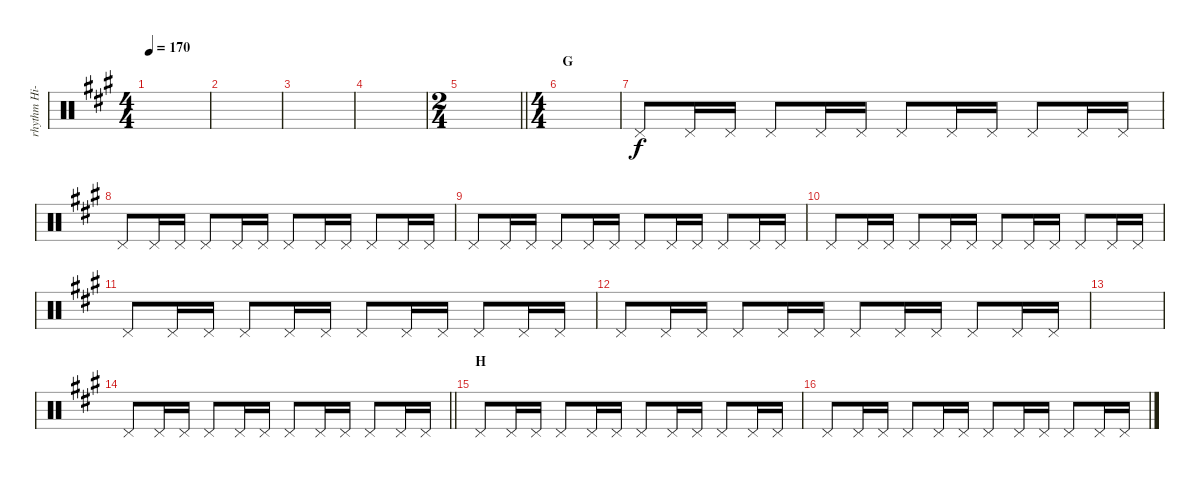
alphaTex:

\track ("rhythm Hi-hat" "rhythm Hi-") {instrument percussion}
\staff {score}
\articulation defaults
\ts (4 4)
\tempo 170
\clef neutral
\ks a
|
|
|
|
\ts (2 4)
\barLineRight lightlight
|
\ts (4 4)
\section ("" "G")
|
"Pedal Hi-Hat (hit)".8 "Pedal Hi-Hat (hit)".16 "Pedal Hi-Hat (hit)".16 "Pedal Hi-Hat (hit)".8 "Pedal Hi-Hat (hit)".16 "Pedal Hi-Hat (hit)".16 "Pedal Hi-Hat (hit)".8 "Pedal Hi-Hat (hit)".16 "Pedal Hi-Hat (hit)".16 "Pedal Hi-Hat (hit)".8 "Pedal Hi-Hat (hit)".16 "Pedal Hi-Hat (hit)".16 |
"Pedal Hi-Hat (hit)".8 "Pedal Hi-Hat (hit)".16 "Pedal Hi-Hat (hit)".16 "Pedal Hi-Hat (hit)".8 "Pedal Hi-Hat (hit)".16 "Pedal Hi-Hat (hit)".16 "Pedal Hi-Hat (hit)".8 "Pedal Hi-Hat (hit)".16 "Pedal Hi-Hat (hit)".16 "Pedal Hi-Hat (hit)".8 "Pedal Hi-Hat (hit)".16 "Pedal Hi-Hat (hit)".16 |
"Pedal Hi-Hat (hit)".8 "Pedal Hi-Hat (hit)".16 "Pedal Hi-Hat (hit)".16 "Pedal Hi-Hat (hit)".8 "Pedal Hi-Hat (hit)".16 "Pedal Hi-Hat (hit)".16 "Pedal Hi-Hat (hit)".8 "Pedal Hi-Hat (hit)".16 "Pedal Hi-Hat (hit)".16 "Pedal Hi-Hat (hit)".8 "Pedal Hi-Hat (hit)".16 "Pedal Hi-Hat (hit)".16 |
"Pedal Hi-Hat (hit)".8 "Pedal Hi-Hat (hit)".16 "Pedal Hi-Hat (hit)".16 "Pedal Hi-Hat (hit)".8 "Pedal Hi-Hat (hit)".16 "Pedal Hi-Hat (hit)".16 "Pedal Hi-Hat (hit)".8 "Pedal Hi-Hat (hit)".16 "Pedal Hi-Hat (hit)".16 "Pedal Hi-Hat (hit)".8 "Pedal Hi-Hat (hit)".16 "Pedal Hi-Hat (hit)".16 |
"Pedal Hi-Hat (hit)".8 "Pedal Hi-Hat (hit)".16 "Pedal Hi-Hat (hit)".16 "Pedal Hi-Hat (hit)".8 "Pedal Hi-Hat (hit)".16 "Pedal Hi-Hat (hit)".16 "Pedal Hi-Hat (hit)".8 "Pedal Hi-Hat (hit)".16 "Pedal Hi-Hat (hit)".16 "Pedal Hi-Hat (hit)".8 "Pedal Hi-Hat (hit)".16 "Pedal Hi-Hat (hit)".16 |
"Pedal Hi-Hat (hit)".8 "Pedal Hi-Hat (hit)".16 "Pedal Hi-Hat (hit)".16 "Pedal Hi-Hat (hit)".8 "Pedal Hi-Hat (hit)".16 "Pedal Hi-Hat (hit)".16 "Pedal Hi-Hat (hit)".8 "Pedal Hi-Hat (hit)".16 "Pedal Hi-Hat (hit)".16 "Pedal Hi-Hat (hit)".8 "Pedal Hi-Hat (hit)".16 "Pedal Hi-Hat (hit)".16 |
|
\barLineRight lightlight "Pedal Hi-Hat (hit)".8 "Pedal Hi-Hat (hit)".16 "Pedal Hi-Hat (hit)".16 "Pedal Hi-Hat (hit)".8 "Pedal Hi-Hat (hit)".16 "Pedal Hi-Hat (hit)".16 "Pedal Hi-Hat (hit)".8 "Pedal Hi-Hat (hit)".16 "Pedal Hi-Hat (hit)".16 "Pedal Hi-Hat (hit)".8 "Pedal Hi-Hat (hit)".16 "Pedal Hi-Hat (hit)".16
|
\section ("" "H")
"Pedal Hi-Hat (hit)".8 "Pedal Hi-Hat (hit)".16 "Pedal Hi-Hat (hit)".16 "Pedal Hi-Hat (hit)".8 "Pedal Hi-Hat (hit)".16 "Pedal Hi-Hat (hit)".16 "Pedal Hi-Hat (hit)".8 "Pedal Hi-Hat (hit)".16 "Pedal Hi-Hat (hit)".16 "Pedal Hi-Hat (hit)".8 "Pedal Hi-Hat (hit)".16 "Pedal Hi-Hat (hit)".16 |
"Pedal Hi-Hat (hit)".8 "Pedal Hi-Hat (hit)".16 "Pedal Hi-Hat (hit)".16 "Pedal Hi-Hat (hit)".8 "Pedal Hi-Hat (hit)".16 "Pedal Hi-Hat (hit)".16 "Pedal Hi-Hat (hit)".8 "Pedal Hi-Hat (hit)".16 "Pedal Hi-Hat (hit)".16 "Pedal Hi-Hat (hit)".8 "Pedal Hi-Hat (hit)".16 "Pedal Hi-Hat (hit)".16
